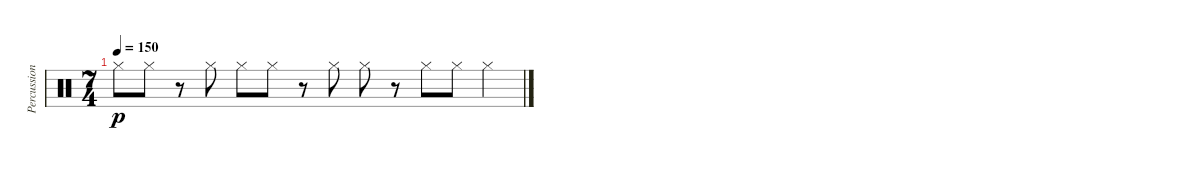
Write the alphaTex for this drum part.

\track ("Percussion" "Percussion") {instrument percussion}
\staff {score}
\articulation defaults
\ts (7 4)
\tempo 150
\clef neutral
\ks c "Hi-Hat (closed)".8{dy p} "Hi-Hat (closed)".8
r.8 "Hi-Hat (closed)".8 "Hi-Hat (closed)".8 "Hi-Hat (closed)".8 r.8 "Hi-Hat (closed)".8 "Hi-Hat (closed)".8 r.8 "Hi-Hat (closed)".8 "Hi-Hat (closed)".8 "Hi-Hat (closed)".4
